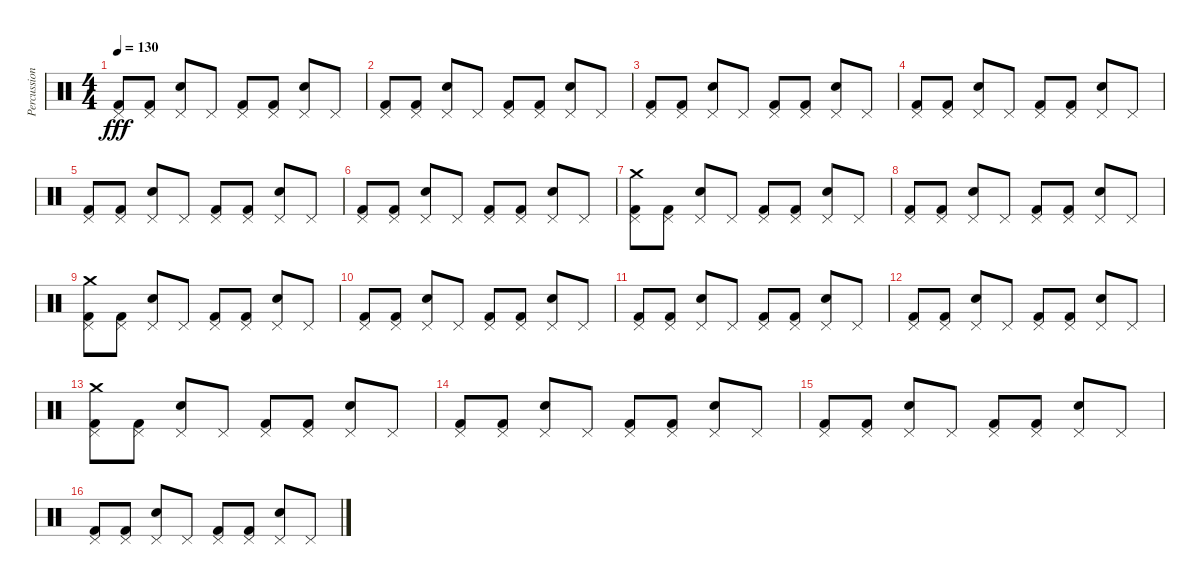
\track ("Percussion" "Percussion") {instrument percussion}
\staff {score}
\articulation defaults
\ts (4 4)
\tempo 130
\clef neutral
\ks c
("Pedal Hi-Hat (hit)" "Kick (hit) 2").8{dy fff} ("Pedal Hi-Hat (hit)" "Kick (hit) 2").8 ("Pedal Hi-Hat (hit)" "Electric Snare (hit)").8 "Pedal Hi-Hat (hit)".8 ("Pedal Hi-Hat (hit)" "Kick (hit) 2").8 ("Pedal Hi-Hat (hit)" "Kick (hit) 2").8 ("Pedal Hi-Hat (hit)" "Electric Snare (hit)").8 "Pedal Hi-Hat (hit)".8 |
("Pedal Hi-Hat (hit)" "Kick (hit) 2").8 ("Pedal Hi-Hat (hit)" "Kick (hit) 2").8 ("Pedal Hi-Hat (hit)" "Electric Snare (hit)").8 "Pedal Hi-Hat (hit)".8 ("Pedal Hi-Hat (hit)" "Kick (hit) 2").8 ("Pedal Hi-Hat (hit)" "Kick (hit) 2").8 ("Pedal Hi-Hat (hit)" "Electric Snare (hit)").8 "Pedal Hi-Hat (hit)".8 |
("Pedal Hi-Hat (hit)" "Kick (hit) 2").8 ("Pedal Hi-Hat (hit)" "Kick (hit) 2").8 ("Pedal Hi-Hat (hit)" "Electric Snare (hit)").8 "Pedal Hi-Hat (hit)".8 ("Pedal Hi-Hat (hit)" "Kick (hit) 2").8 ("Pedal Hi-Hat (hit)" "Kick (hit) 2").8 ("Pedal Hi-Hat (hit)" "Electric Snare (hit)").8 "Pedal Hi-Hat (hit)".8 |
("Pedal Hi-Hat (hit)" "Kick (hit) 2").8 ("Pedal Hi-Hat (hit)" "Kick (hit) 2").8 ("Pedal Hi-Hat (hit)" "Electric Snare (hit)").8 "Pedal Hi-Hat (hit)".8 ("Pedal Hi-Hat (hit)" "Kick (hit) 2").8 ("Pedal Hi-Hat (hit)" "Kick (hit) 2").8 ("Pedal Hi-Hat (hit)" "Electric Snare (hit)").8 "Pedal Hi-Hat (hit)".8 |
("Pedal Hi-Hat (hit)" "Kick (hit) 2").8 ("Pedal Hi-Hat (hit)" "Kick (hit) 2").8 ("Pedal Hi-Hat (hit)" "Electric Snare (hit)").8 "Pedal Hi-Hat (hit)".8 ("Pedal Hi-Hat (hit)" "Kick (hit) 2").8 ("Pedal Hi-Hat (hit)" "Kick (hit) 2").8 ("Pedal Hi-Hat (hit)" "Electric Snare (hit)").8 "Pedal Hi-Hat (hit)".8 |
("Pedal Hi-Hat (hit)" "Kick (hit) 2").8 ("Pedal Hi-Hat (hit)" "Kick (hit) 2").8 ("Pedal Hi-Hat (hit)" "Electric Snare (hit)").8 "Pedal Hi-Hat (hit)".8 ("Pedal Hi-Hat (hit)" "Kick (hit) 2").8 ("Pedal Hi-Hat (hit)" "Kick (hit) 2").8 ("Pedal Hi-Hat (hit)" "Electric Snare (hit)").8 "Pedal Hi-Hat (hit)".8 |
("Pedal Hi-Hat (hit)" "Crash medium (hit)" "Kick (hit) 2").8 ("Pedal Hi-Hat (hit)" "Kick (hit) 2").8 ("Pedal Hi-Hat (hit)" "Electric Snare (hit)").8 "Pedal Hi-Hat (hit)".8 ("Pedal Hi-Hat (hit)" "Kick (hit) 2").8 ("Pedal Hi-Hat (hit)" "Kick (hit) 2").8 ("Pedal Hi-Hat (hit)" "Electric Snare (hit)").8 "Pedal Hi-Hat (hit)".8 |
("Pedal Hi-Hat (hit)" "Kick (hit) 2").8 ("Pedal Hi-Hat (hit)" "Kick (hit) 2").8 ("Pedal Hi-Hat (hit)" "Electric Snare (hit)").8 "Pedal Hi-Hat (hit)".8 ("Pedal Hi-Hat (hit)" "Kick (hit) 2").8 ("Pedal Hi-Hat (hit)" "Kick (hit) 2").8 ("Pedal Hi-Hat (hit)" "Electric Snare (hit)").8 "Pedal Hi-Hat (hit)".8 |
("Pedal Hi-Hat (hit)" "Crash medium (hit)" "Kick (hit) 2").8 ("Pedal Hi-Hat (hit)" "Kick (hit) 2").8 ("Pedal Hi-Hat (hit)" "Electric Snare (hit)").8 "Pedal Hi-Hat (hit)".8 ("Pedal Hi-Hat (hit)" "Kick (hit) 2").8 ("Pedal Hi-Hat (hit)" "Kick (hit) 2").8 ("Pedal Hi-Hat (hit)" "Electric Snare (hit)").8 "Pedal Hi-Hat (hit)".8 |
("Pedal Hi-Hat (hit)" "Kick (hit) 2").8 ("Pedal Hi-Hat (hit)" "Kick (hit) 2").8 ("Pedal Hi-Hat (hit)" "Electric Snare (hit)").8 "Pedal Hi-Hat (hit)".8 ("Pedal Hi-Hat (hit)" "Kick (hit) 2").8 ("Pedal Hi-Hat (hit)" "Kick (hit) 2").8 ("Pedal Hi-Hat (hit)" "Electric Snare (hit)").8 "Pedal Hi-Hat (hit)".8 |
("Pedal Hi-Hat (hit)" "Kick (hit) 2").8 ("Pedal Hi-Hat (hit)" "Kick (hit) 2").8 ("Pedal Hi-Hat (hit)" "Electric Snare (hit)").8 "Pedal Hi-Hat (hit)".8 ("Pedal Hi-Hat (hit)" "Kick (hit) 2").8 ("Pedal Hi-Hat (hit)" "Kick (hit) 2").8 ("Pedal Hi-Hat (hit)" "Electric Snare (hit)").8 "Pedal Hi-Hat (hit)".8 |
("Pedal Hi-Hat (hit)" "Kick (hit) 2").8 ("Pedal Hi-Hat (hit)" "Kick (hit) 2").8 ("Pedal Hi-Hat (hit)" "Electric Snare (hit)").8 "Pedal Hi-Hat (hit)".8 ("Pedal Hi-Hat (hit)" "Kick (hit) 2").8 ("Pedal Hi-Hat (hit)" "Kick (hit) 2").8 ("Pedal Hi-Hat (hit)" "Electric Snare (hit)").8 "Pedal Hi-Hat (hit)".8 |
("Pedal Hi-Hat (hit)" "Crash medium (hit)" "Kick (hit) 2").8 ("Pedal Hi-Hat (hit)" "Kick (hit) 2").8 ("Pedal Hi-Hat (hit)" "Electric Snare (hit)").8 "Pedal Hi-Hat (hit)".8 ("Pedal Hi-Hat (hit)" "Kick (hit) 2").8 ("Pedal Hi-Hat (hit)" "Kick (hit) 2").8 ("Pedal Hi-Hat (hit)" "Electric Snare (hit)").8 "Pedal Hi-Hat (hit)".8 |
("Pedal Hi-Hat (hit)" "Kick (hit) 2").8 ("Pedal Hi-Hat (hit)" "Kick (hit) 2").8 ("Pedal Hi-Hat (hit)" "Electric Snare (hit)").8 "Pedal Hi-Hat (hit)".8 ("Pedal Hi-Hat (hit)" "Kick (hit) 2").8 ("Pedal Hi-Hat (hit)" "Kick (hit) 2").8 ("Pedal Hi-Hat (hit)" "Electric Snare (hit)").8 "Pedal Hi-Hat (hit)".8 |
("Pedal Hi-Hat (hit)" "Kick (hit) 2").8 ("Pedal Hi-Hat (hit)" "Kick (hit) 2").8 ("Pedal Hi-Hat (hit)" "Electric Snare (hit)").8 "Pedal Hi-Hat (hit)".8 ("Pedal Hi-Hat (hit)" "Kick (hit) 2").8 ("Pedal Hi-Hat (hit)" "Kick (hit) 2").8 ("Pedal Hi-Hat (hit)" "Electric Snare (hit)").8 "Pedal Hi-Hat (hit)".8 |
("Pedal Hi-Hat (hit)" "Kick (hit) 2").8 ("Pedal Hi-Hat (hit)" "Kick (hit) 2").8 ("Pedal Hi-Hat (hit)" "Electric Snare (hit)").8 "Pedal Hi-Hat (hit)".8 ("Pedal Hi-Hat (hit)" "Kick (hit) 2").8 ("Pedal Hi-Hat (hit)" "Kick (hit) 2").8 ("Pedal Hi-Hat (hit)" "Electric Snare (hit)").8 "Pedal Hi-Hat (hit)".8
